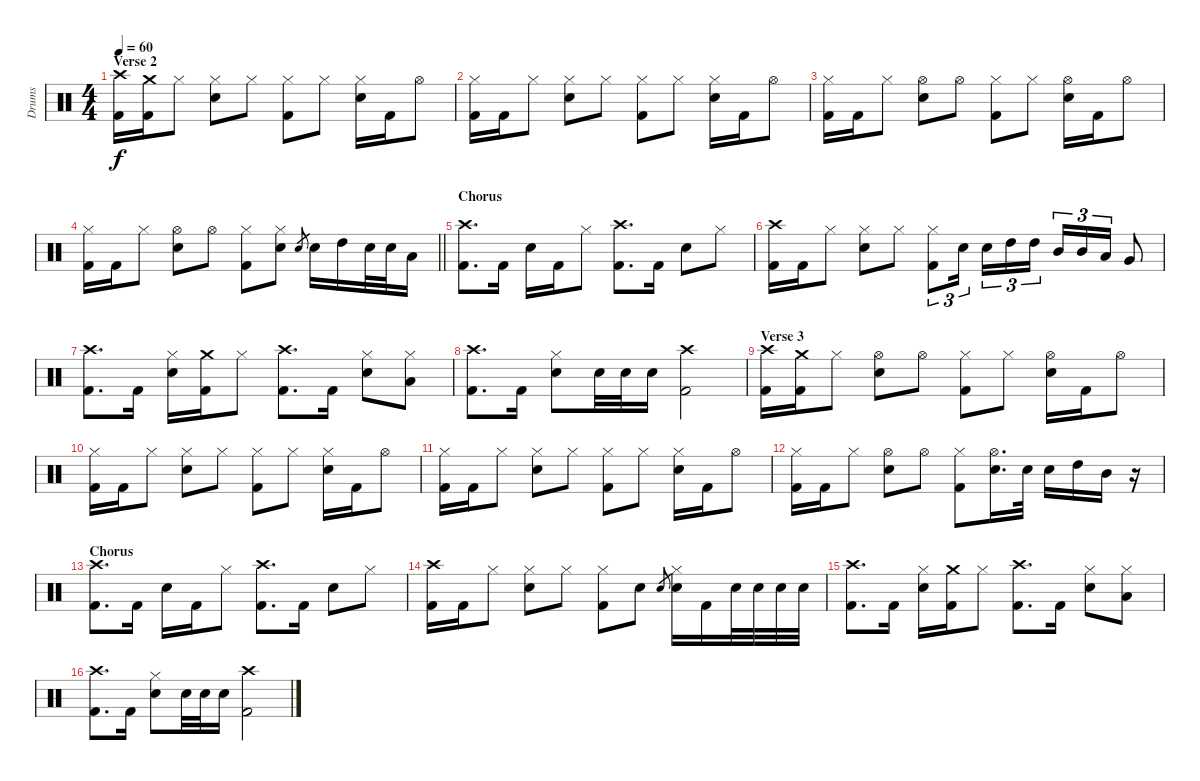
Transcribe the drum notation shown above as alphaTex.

\track ("Drums " "Drums ") {instrument percussion}
\staff {score}
\articulation defaults
\ts (4 4)
\section ("" "Verse 2")
\tempo 60
\clef neutral
\ks aminor
("Crash high (hit)" "Kick (hit) 2").16{dy f} ("Crash medium (hit)" "Kick (hit) 2").16 "Hi-Hat (closed)".8 ("Hi-Hat (closed)" "Snare (hit) 2").8 "Hi-Hat (closed)".8 ("Hi-Hat (closed)" "Kick (hit) 2").8 "Hi-Hat (closed)".8 ("Hi-Hat (closed)" "Snare (hit) 2").16 "Kick (hit) 2".16 "Hi-Hat (open)".8 |
("Hi-Hat (closed)" "Kick (hit) 2").16 "Kick (hit) 2".16 "Hi-Hat (closed)".8 ("Hi-Hat (closed)" "Snare (hit) 2").8 "Hi-Hat (closed)".8 ("Hi-Hat (closed)" "Kick (hit) 2").8 "Hi-Hat (closed)".8 ("Hi-Hat (closed)" "Snare (hit) 2").16 "Kick (hit) 2".16 "Hi-Hat (open)".8 |
("Hi-Hat (closed)" "Kick (hit) 2").16 "Kick (hit) 2".16 "Hi-Hat (closed)".8 ("Hi-Hat (open)" "Snare (hit) 2").8 "Hi-Hat (open)".8 ("Hi-Hat (closed)" "Kick (hit) 2").8 "Hi-Hat (closed)".8 ("Hi-Hat (open)" "Snare (hit) 2").16 "Kick (hit) 2".16 "Hi-Hat (open)".8 |
\barLineRight lightlight
("Hi-Hat (closed)" "Kick (hit) 2").16 "Kick (hit) 2".16 "Hi-Hat (closed)".8 ("Hi-Hat (open)" "Snare (hit) 2").8 "Hi-Hat (open)".8 ("Hi-Hat (closed)" "Kick (hit) 2").8 ("Hi-Hat (closed)" "Snare (hit) 2").8 "Snare (hit) 2".8{gr} "Snare (hit) 2".16 "High Tom (hit)".16 "Snare (hit) 2".32 "Snare (hit) 2".32 "Low Tom (hit)".16 |
\section ("" "Chorus")
("Crash high (hit)" "Kick (hit) 2").8{d} "Kick (hit) 2".16 "Snare (hit) 2".16 "Kick (hit) 2".16 "Hi-Hat (closed)".8 ("Crash high (hit)" "Kick (hit) 2").8{d} "Kick (hit) 2".16 "Snare (hit) 2".8 "Hi-Hat (closed)".8 |
("Crash high (hit)" "Kick (hit) 2").16 "Kick (hit) 2".16 "Hi-Hat (closed)".8 ("Hi-Hat (closed)" "Snare (hit) 2").8 "Hi-Hat (closed)".8 ("Hi-Hat (closed)" "Kick (hit) 2").8{tu (3 2)} "Snare (hit) 2".16{tu (3 2)} "Snare (hit) 2".16{tu (3 2)} "High Tom (hit)".16{tu (3 2)} "High Tom (hit)".16{tu (3 2)} "Mid Tom (hit)".16{tu (3 2)} "Mid Tom (hit)".16{tu (3 2)} "Low Tom (hit)".16{tu (3 2)} "Very Low Tom (hit)".8 |
("Crash high (hit)" "Kick (hit) 2").8{d} "Kick (hit) 2".16 ("Hi-Hat (closed)" "Snare (hit) 2").16 ("Crash medium (hit)" "Kick (hit) 2").16 "Hi-Hat (closed)".8 ("Crash high (hit)" "Kick (hit) 2").8{d} "Kick (hit) 2".16 ("Hi-Hat (closed)" "Snare (hit) 2").8 ("Low Tom (hit)" "Hi-Hat (closed)").8 |
("Crash high (hit)" "Kick (hit) 2").8{d} "Kick (hit) 2".16 ("Hi-Hat (closed)" "Snare (hit) 2").8 "Snare (hit) 2".32 "Snare (hit) 2".32 "Snare (hit) 2".16 ("Crash high (hit)" "Kick (hit) 2").2 |
\section ("" "Verse 3")
("Crash high (hit)" "Kick (hit) 2").16 ("Crash medium (hit)" "Kick (hit) 2").16 "Hi-Hat (closed)".8 ("Hi-Hat (open)" "Snare (hit) 2").8 "Hi-Hat (open)".8 ("Hi-Hat (closed)" "Kick (hit) 2").8 "Hi-Hat (closed)".8 ("Hi-Hat (open)" "Snare (hit) 2").16 "Kick (hit) 2".16 "Hi-Hat (open)".8 |
("Hi-Hat (closed)" "Kick (hit) 2").16 "Kick (hit) 2".16 "Hi-Hat (closed)".8 ("Hi-Hat (closed)" "Snare (hit) 2").8 "Hi-Hat (closed)".8 ("Hi-Hat (closed)" "Kick (hit) 2").8 "Hi-Hat (closed)".8 ("Hi-Hat (closed)" "Snare (hit) 2").16 "Kick (hit) 2".16 "Hi-Hat (open)".8 |
("Hi-Hat (closed)" "Kick (hit) 2").16 "Kick (hit) 2".16 "Hi-Hat (closed)".8 ("Hi-Hat (closed)" "Snare (hit) 2").8 "Hi-Hat (closed)".8 ("Hi-Hat (closed)" "Kick (hit) 2").8 "Hi-Hat (closed)".8 ("Hi-Hat (closed)" "Snare (hit) 2").16 "Kick (hit) 2".16 "Hi-Hat (open)".8 |
("Hi-Hat (closed)" "Kick (hit) 2").16 "Kick (hit) 2".16 "Hi-Hat (closed)".8 ("Hi-Hat (open)" "Snare (hit) 2").8 "Hi-Hat (open)".8 ("Hi-Hat (closed)" "Kick (hit) 2").8 ("Hi-Hat (open)" "Snare (hit) 2").16{d} "Snare (hit) 2".32 "Snare (hit) 2".16 "High Tom (hit)".16 "Mid Tom (hit)".16 r.16 |
\section ("" "Chorus")
("Crash high (hit)" "Kick (hit) 2").8{d} "Kick (hit) 2".16 "Snare (hit) 2".16 "Kick (hit) 2".16 "Hi-Hat (closed)".8 ("Crash high (hit)" "Kick (hit) 2").8{d} "Kick (hit) 2".16 "Snare (hit) 2".8 "Hi-Hat (closed)".8 |
("Crash high (hit)" "Kick (hit) 2").16 "Kick (hit) 2".16 "Hi-Hat (closed)".8 ("Hi-Hat (closed)" "Snare (hit) 2").8 "Hi-Hat (closed)".8 ("Hi-Hat (closed)" "Kick (hit) 2").8 "Snare (hit) 2".8 "Snare (hit) 2".8{gr} ("Hi-Hat (closed)" "Snare (hit) 2").16 "Kick (hit) 2".16 "Snare (hit) 2".32 "Snare (hit) 2".32 "Snare (hit) 2".32 "Snare (hit) 2".32 |
("Crash high (hit)" "Kick (hit) 2").8{d} "Kick (hit) 2".16 ("Hi-Hat (closed)" "Snare (hit) 2").16 ("Crash medium (hit)" "Kick (hit) 2").16 "Hi-Hat (closed)".8 ("Crash high (hit)" "Kick (hit) 2").8{d} "Kick (hit) 2".16 ("Hi-Hat (closed)" "Snare (hit) 2").8 ("Low Tom (hit)" "Hi-Hat (closed)").8 |
("Crash high (hit)" "Kick (hit) 2").8{d} "Kick (hit) 2".16 ("Hi-Hat (closed)" "Snare (hit) 2").8 "Snare (hit) 2".32 "Snare (hit) 2".32 "Snare (hit) 2".16 ("Crash high (hit)" "Kick (hit) 2").2
